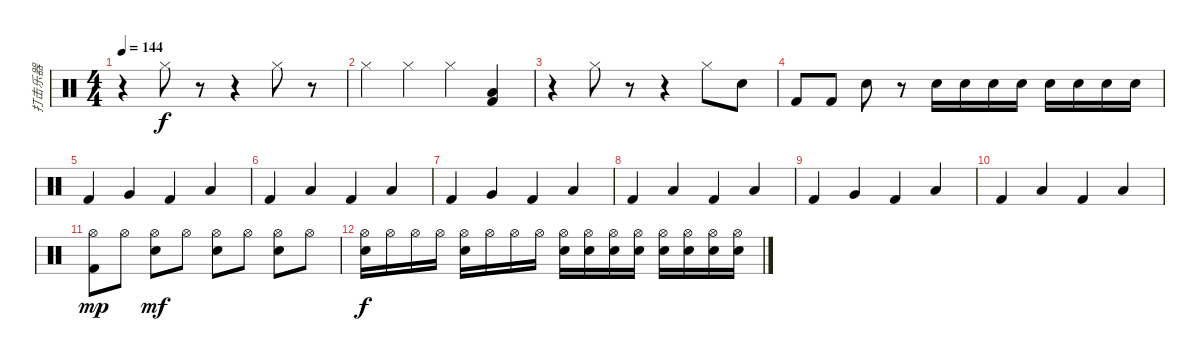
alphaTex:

\track ("打击乐器" "打击乐器") {instrument percussion}
\staff {score}
\articulation defaults
\ts (4 4)
\tempo 144
\clef neutral
\ks c
r.4{dy f} "Hi-Hat (closed)".8 r.8 r.4 "Hi-Hat (closed)".8 r.8 |
"Hi-Hat (closed)".4 "Hi-Hat (closed)".4 "Hi-Hat (closed)".4 ("Low Floor Tom (hit)" "Kick (hit) 2").4 |
r.4 "Hi-Hat (closed)".8 r.8 r.4 "Hi-Hat (closed)".8 "Electric Snare (hit)".8 |
"Kick (hit) 2".8 "Kick (hit) 2".8 "Electric Snare (hit)".8 r.8 "Electric Snare (hit)".16 "Electric Snare (hit)".16 "Electric Snare (hit)".16 "Electric Snare (hit)".16 "Electric Snare (hit)".16 "Electric Snare (hit)".16 "Electric Snare (hit)".16 "Electric Snare (hit)".16 |
"Kick (hit) 2".4 "Very Low Tom (hit)".4 "Kick (hit) 2".4 "Low Floor Tom (hit)".4 |
"Kick (hit) 2".4 "Low Floor Tom (hit)".4 "Kick (hit) 2".4 "Low Floor Tom (hit)".4 |
"Kick (hit) 2".4 "Very Low Tom (hit)".4 "Kick (hit) 2".4 "Low Floor Tom (hit)".4 |
"Kick (hit) 2".4 "Low Floor Tom (hit)".4 "Kick (hit) 2".4 "Low Floor Tom (hit)".4 |
"Kick (hit) 2".4 "Very Low Tom (hit)".4 "Kick (hit) 2".4 "Low Floor Tom (hit)".4 |
"Kick (hit) 2".4 "Low Floor Tom (hit)".4 "Kick (hit) 2".4 "Low Floor Tom (hit)".4 |
("Hi-Hat (open)" "Kick (hit) 2").8{dy mp} "Hi-Hat (open)".8 ("Hi-Hat (open)" "Electric Snare (hit)").8{dy mf} "Hi-Hat (open)".8 ("Hi-Hat (open)" "Electric Snare (hit)").8 "Hi-Hat (open)".8 ("Hi-Hat (open)" "Electric Snare (hit)").8 "Hi-Hat (open)".8 |
("Hi-Hat (open)" "Electric Snare (hit)").16{dy f} "Hi-Hat (open)".16 "Hi-Hat (open)".16 "Hi-Hat (open)".16 ("Hi-Hat (open)" "Electric Snare (hit)").16 "Hi-Hat (open)".16 "Hi-Hat (open)".16 "Hi-Hat (open)".16 ("Hi-Hat (open)" "Electric Snare (hit)").16 ("Hi-Hat (open)" "Electric Snare (hit)").16 ("Hi-Hat (open)" "Electric Snare (hit)").16 ("Hi-Hat (open)" "Electric Snare (hit)").16 ("Hi-Hat (open)" "Electric Snare (hit)").16 ("Hi-Hat (open)" "Electric Snare (hit)").16 ("Hi-Hat (open)" "Electric Snare (hit)").16 ("Hi-Hat (open)" "Electric Snare (hit)").16
